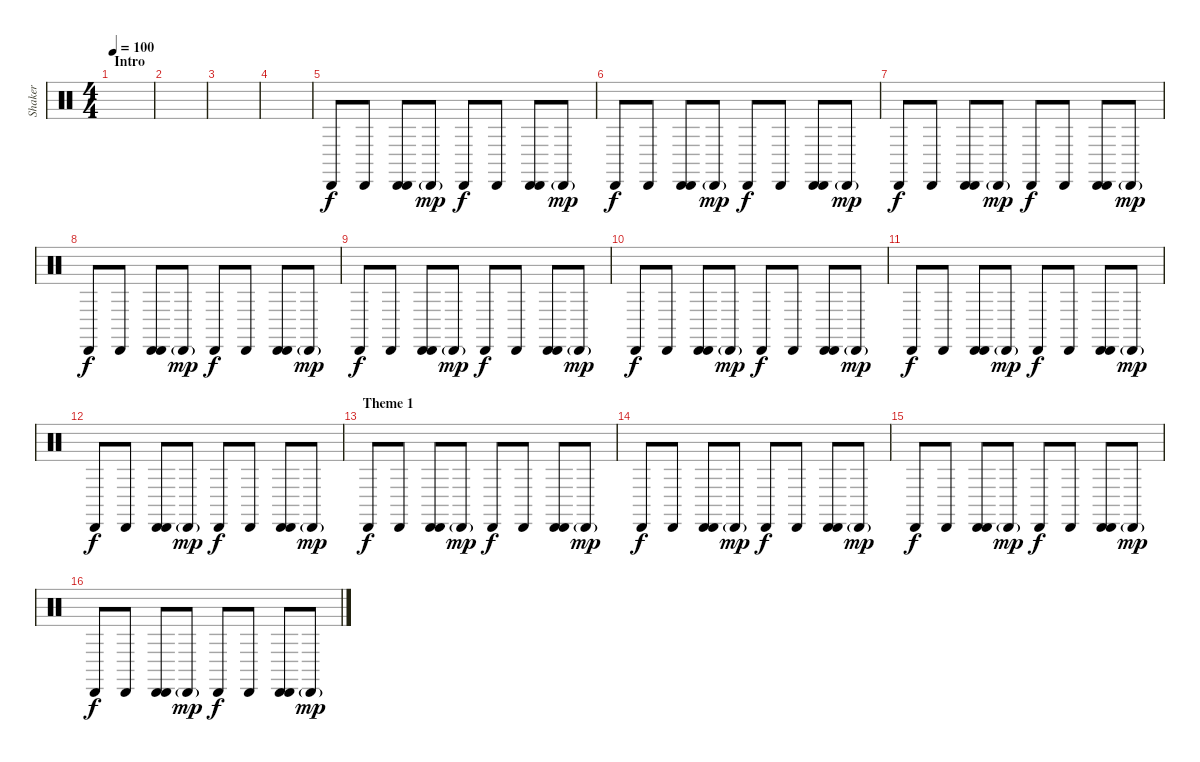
\track ("Shaker" "Shaker") {instrument percussion}
\staff {score}
\articulation defaults
\ts (4 4)
\section ("" "Intro")
\tempo 100
\clef neutral
\ks c
|
|
|
|
"Cabasa (hit)".8 "Cabasa (hit)".8 ("Cabasa (hit)" "Cabasa (hit)").8 "Cabasa (hit)"{g}.8{dy mp} "Cabasa (hit)".8{dy f} "Cabasa (hit)".8 ("Cabasa (hit)" "Cabasa (hit)").8 "Cabasa (hit)"{g}.8{dy mp} |
"Cabasa (hit)".8{dy f} "Cabasa (hit)".8 ("Cabasa (hit)" "Cabasa (hit)").8 "Cabasa (hit)"{g}.8{dy mp} "Cabasa (hit)".8{dy f} "Cabasa (hit)".8 ("Cabasa (hit)" "Cabasa (hit)").8 "Cabasa (hit)"{g}.8{dy mp} |
"Cabasa (hit)".8{dy f} "Cabasa (hit)".8 ("Cabasa (hit)" "Cabasa (hit)").8 "Cabasa (hit)"{g}.8{dy mp} "Cabasa (hit)".8{dy f} "Cabasa (hit)".8 ("Cabasa (hit)" "Cabasa (hit)").8 "Cabasa (hit)"{g}.8{dy mp} |
"Cabasa (hit)".8{dy f} "Cabasa (hit)".8 ("Cabasa (hit)" "Cabasa (hit)").8 "Cabasa (hit)"{g}.8{dy mp} "Cabasa (hit)".8{dy f} "Cabasa (hit)".8 ("Cabasa (hit)" "Cabasa (hit)").8 "Cabasa (hit)"{g}.8{dy mp} |
"Cabasa (hit)".8{dy f} "Cabasa (hit)".8 ("Cabasa (hit)" "Cabasa (hit)").8 "Cabasa (hit)"{g}.8{dy mp} "Cabasa (hit)".8{dy f} "Cabasa (hit)".8 ("Cabasa (hit)" "Cabasa (hit)").8 "Cabasa (hit)"{g}.8{dy mp} |
"Cabasa (hit)".8{dy f} "Cabasa (hit)".8 ("Cabasa (hit)" "Cabasa (hit)").8 "Cabasa (hit)"{g}.8{dy mp} "Cabasa (hit)".8{dy f} "Cabasa (hit)".8 ("Cabasa (hit)" "Cabasa (hit)").8 "Cabasa (hit)"{g}.8{dy mp} |
"Cabasa (hit)".8{dy f} "Cabasa (hit)".8 ("Cabasa (hit)" "Cabasa (hit)").8 "Cabasa (hit)"{g}.8{dy mp} "Cabasa (hit)".8{dy f} "Cabasa (hit)".8 ("Cabasa (hit)" "Cabasa (hit)").8 "Cabasa (hit)"{g}.8{dy mp} |
"Cabasa (hit)".8{dy f} "Cabasa (hit)".8 ("Cabasa (hit)" "Cabasa (hit)").8 "Cabasa (hit)"{g}.8{dy mp} "Cabasa (hit)".8{dy f} "Cabasa (hit)".8 ("Cabasa (hit)" "Cabasa (hit)").8 "Cabasa (hit)"{g}.8{dy mp} |
\section ("" "Theme 1")
"Cabasa (hit)".8{dy f} "Cabasa (hit)".8 ("Cabasa (hit)" "Cabasa (hit)").8 "Cabasa (hit)"{g}.8{dy mp} "Cabasa (hit)".8{dy f} "Cabasa (hit)".8 ("Cabasa (hit)" "Cabasa (hit)").8 "Cabasa (hit)"{g}.8{dy mp} |
"Cabasa (hit)".8{dy f} "Cabasa (hit)".8 ("Cabasa (hit)" "Cabasa (hit)").8 "Cabasa (hit)"{g}.8{dy mp} "Cabasa (hit)".8{dy f} "Cabasa (hit)".8 ("Cabasa (hit)" "Cabasa (hit)").8 "Cabasa (hit)"{g}.8{dy mp} |
"Cabasa (hit)".8{dy f} "Cabasa (hit)".8 ("Cabasa (hit)" "Cabasa (hit)").8 "Cabasa (hit)"{g}.8{dy mp} "Cabasa (hit)".8{dy f} "Cabasa (hit)".8 ("Cabasa (hit)" "Cabasa (hit)").8 "Cabasa (hit)"{g}.8{dy mp} |
"Cabasa (hit)".8{dy f} "Cabasa (hit)".8 ("Cabasa (hit)" "Cabasa (hit)").8 "Cabasa (hit)"{g}.8{dy mp} "Cabasa (hit)".8{dy f} "Cabasa (hit)".8 ("Cabasa (hit)" "Cabasa (hit)").8 "Cabasa (hit)"{g}.8{dy mp}
